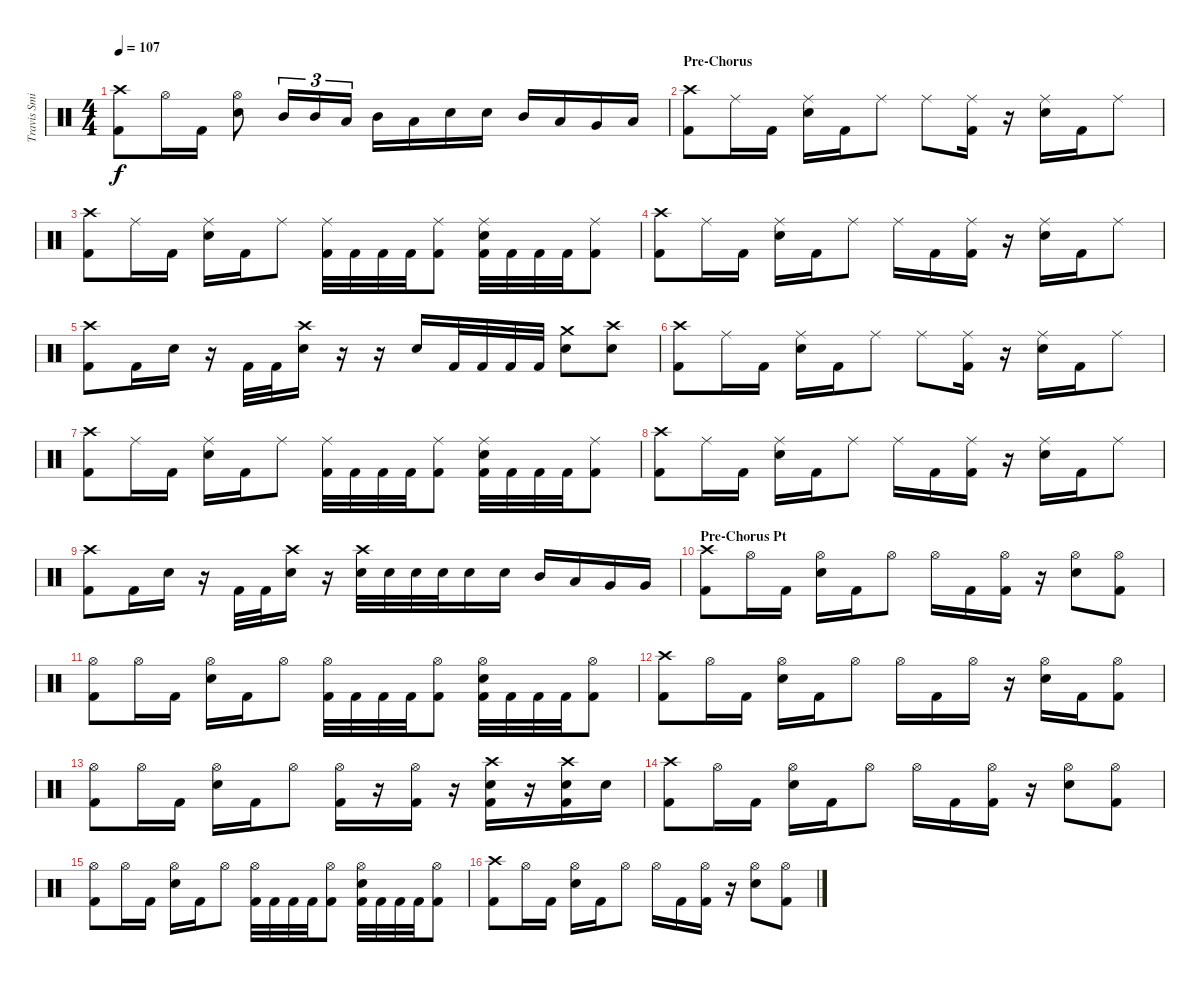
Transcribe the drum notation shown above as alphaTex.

\track ("Travis Smith" "Travis Smi") {instrument percussion}
\staff {score}
\articulation defaults
\ts (4 4)
\tempo 107
\clef neutral
\ks c
("Crash high (hit)" "Kick (hit) 2").8{dy f} "Hi-Hat (open)".16 "Kick (hit) 2".16 ("Hi-Hat (open)" "Electric Snare (hit)").8 "Mid Tom (hit)".16{tu (3 2)} "Mid Tom (hit)".16{tu (3 2)} "Low Tom (hit)".16{tu (3 2)} "Mid Tom (hit)".16 "Low Tom (hit)".16 "Electric Snare (hit)".16 "Electric Snare (hit)".16 "Mid Tom (hit)".16 "Low Tom (hit)".16 "Very Low Tom (hit)".16 "Low Floor Tom (hit)".16 |
\section ("" "Pre-Chorus")
("Crash high (hit)" "Kick (hit) 2").8 "Ride (middle)".16 "Kick (hit) 2".16 ("Ride (middle)" "Electric Snare (hit)").16 "Kick (hit) 2".16 "Ride (middle)".8 "Ride (middle)".8 ("Ride (middle)" "Kick (hit) 2").16 r.16 ("Ride (middle)" "Electric Snare (hit)").16 "Kick (hit) 2".16 "Ride (middle)".8 |
("Crash high (hit)" "Kick (hit) 2").8 "Ride (middle)".16 "Kick (hit) 2".16 ("Ride (middle)" "Electric Snare (hit)").16 "Kick (hit) 2".16 "Ride (middle)".8 ("Ride (middle)" "Kick (hit) 2").32 "Kick (hit) 2".32 "Kick (hit) 2".32 "Kick (hit) 2".32 ("Ride (middle)" "Kick (hit) 2").8 ("Ride (middle)" "Electric Snare (hit)" "Kick (hit) 2").32 "Kick (hit) 2".32 "Kick (hit) 2".32 "Kick (hit) 2".32 ("Ride (middle)" "Kick (hit) 2").8 |
("Crash high (hit)" "Kick (hit) 2").8 "Ride (middle)".16 "Kick (hit) 2".16 ("Ride (middle)" "Electric Snare (hit)").16 "Kick (hit) 2".16 "Ride (middle)".8 "Ride (middle)".16 "Kick (hit) 2".16 ("Ride (middle)" "Kick (hit) 2").16 r.16 ("Ride (middle)" "Electric Snare (hit)").16 "Kick (hit) 2".16 "Ride (middle)".8 |
("Crash high (hit)" "Kick (hit) 2").8 "Kick (hit) 2".16 "Electric Snare (hit)".16 r.16 "Kick (hit) 2".32 "Kick (hit) 2".32 ("Crash high (hit)" "Electric Snare (hit)").16 r.16 r.16 "Electric Snare (hit)".16 "Kick (hit) 2".32 "Kick (hit) 2".32 "Kick (hit) 2".32 "Kick (hit) 2".32 ("Crash medium (hit)" "Electric Snare (hit)").8 ("Crash high (hit)" "Electric Snare (hit)").8 |
("Crash high (hit)" "Kick (hit) 2").8 "Ride (middle)".16 "Kick (hit) 2".16 ("Ride (middle)" "Electric Snare (hit)").16 "Kick (hit) 2".16 "Ride (middle)".8 "Ride (middle)".8 ("Ride (middle)" "Kick (hit) 2").16 r.16 ("Ride (middle)" "Electric Snare (hit)").16 "Kick (hit) 2".16 "Ride (middle)".8 |
("Crash high (hit)" "Kick (hit) 2").8 "Ride (middle)".16 "Kick (hit) 2".16 ("Ride (middle)" "Electric Snare (hit)").16 "Kick (hit) 2".16 "Ride (middle)".8 ("Ride (middle)" "Kick (hit) 2").32 "Kick (hit) 2".32 "Kick (hit) 2".32 "Kick (hit) 2".32 ("Ride (middle)" "Kick (hit) 2").8 ("Ride (middle)" "Electric Snare (hit)" "Kick (hit) 2").32 "Kick (hit) 2".32 "Kick (hit) 2".32 "Kick (hit) 2".32 ("Ride (middle)" "Kick (hit) 2").8 |
("Crash high (hit)" "Kick (hit) 2").8 "Ride (middle)".16 "Kick (hit) 2".16 ("Ride (middle)" "Electric Snare (hit)").16 "Kick (hit) 2".16 "Ride (middle)".8 "Ride (middle)".16 "Kick (hit) 2".16 ("Ride (middle)" "Kick (hit) 2").16 r.16 ("Ride (middle)" "Electric Snare (hit)").16 "Kick (hit) 2".16 "Ride (middle)".8 |
("Crash high (hit)" "Kick (hit) 2").8 "Kick (hit) 2".16 "Electric Snare (hit)".16 r.16 "Kick (hit) 2".32 "Kick (hit) 2".32 ("Crash high (hit)" "Electric Snare (hit)").16 r.16 ("Crash high (hit)" "Electric Snare (hit)").32 "Electric Snare (hit)".32 "Electric Snare (hit)".32 "Electric Snare (hit)".32 "Electric Snare (hit)".16 "Electric Snare (hit)".16 "Mid Tom (hit)".16 "Low Tom (hit)".16 "Very Low Tom (hit)".16 "Very Low Tom (hit)".16 |
\section ("" "Pre-Chorus Pt")
("Crash high (hit)" "Kick (hit) 2").8 "Hi-Hat (open)".16 "Kick (hit) 2".16 ("Hi-Hat (open)" "Electric Snare (hit)").16 "Kick (hit) 2".16 "Hi-Hat (open)".8 "Hi-Hat (open)".16 "Kick (hit) 2".16 ("Hi-Hat (open)" "Kick (hit) 2").16 r.16 ("Hi-Hat (open)" "Electric Snare (hit)").8 ("Hi-Hat (open)" "Kick (hit) 2").8 |
("Hi-Hat (open)" "Kick (hit) 2").8 "Hi-Hat (open)".16 "Kick (hit) 2".16 ("Hi-Hat (open)" "Electric Snare (hit)").16 "Kick (hit) 2".16 "Hi-Hat (open)".8 ("Hi-Hat (open)" "Kick (hit) 2").32 "Kick (hit) 2".32 "Kick (hit) 2".32 "Kick (hit) 2".32 ("Hi-Hat (open)" "Kick (hit) 2").8 ("Hi-Hat (open)" "Electric Snare (hit)" "Kick (hit) 2").32 "Kick (hit) 2".32 "Kick (hit) 2".32 "Kick (hit) 2".32 ("Hi-Hat (open)" "Kick (hit) 2").8 |
("Crash high (hit)" "Kick (hit) 2").8 "Hi-Hat (open)".16 "Kick (hit) 2".16 ("Hi-Hat (open)" "Electric Snare (hit)").16 "Kick (hit) 2".16 "Hi-Hat (open)".8 "Hi-Hat (open)".16 "Kick (hit) 2".16 "Hi-Hat (open)".16 r.16 ("Hi-Hat (open)" "Electric Snare (hit)").16 "Kick (hit) 2".16 ("Hi-Hat (open)" "Kick (hit) 2").8 |
("Hi-Hat (open)" "Kick (hit) 2").8 "Hi-Hat (open)".16 "Kick (hit) 2".16 ("Hi-Hat (open)" "Electric Snare (hit)").16 "Kick (hit) 2".16 "Hi-Hat (open)".8 ("Hi-Hat (open)" "Kick (hit) 2").16 r.16 ("Hi-Hat (open)" "Kick (hit) 2").16 r.16 ("Crash high (hit)" "Electric Snare (hit)" "Kick (hit) 2").16 r.16 ("Crash high (hit)" "Electric Snare (hit)" "Kick (hit) 2").16 "Electric Snare (hit)".16 |
("Crash high (hit)" "Kick (hit) 2").8 "Hi-Hat (open)".16 "Kick (hit) 2".16 ("Hi-Hat (open)" "Electric Snare (hit)").16 "Kick (hit) 2".16 "Hi-Hat (open)".8 "Hi-Hat (open)".16 "Kick (hit) 2".16 ("Hi-Hat (open)" "Kick (hit) 2").16 r.16 ("Hi-Hat (open)" "Electric Snare (hit)").8 ("Hi-Hat (open)" "Kick (hit) 2").8 |
("Hi-Hat (open)" "Kick (hit) 2").8 "Hi-Hat (open)".16 "Kick (hit) 2".16 ("Hi-Hat (open)" "Electric Snare (hit)").16 "Kick (hit) 2".16 "Hi-Hat (open)".8 ("Hi-Hat (open)" "Kick (hit) 2").32 "Kick (hit) 2".32 "Kick (hit) 2".32 "Kick (hit) 2".32 ("Hi-Hat (open)" "Kick (hit) 2").8 ("Hi-Hat (open)" "Electric Snare (hit)" "Kick (hit) 2").32 "Kick (hit) 2".32 "Kick (hit) 2".32 "Kick (hit) 2".32 ("Hi-Hat (open)" "Kick (hit) 2").8 |
("Crash high (hit)" "Kick (hit) 2").8 "Hi-Hat (open)".16 "Kick (hit) 2".16 ("Hi-Hat (open)" "Electric Snare (hit)").16 "Kick (hit) 2".16 "Hi-Hat (open)".8 "Hi-Hat (open)".16 "Kick (hit) 2".16 ("Hi-Hat (open)" "Kick (hit) 2").16 r.16 ("Hi-Hat (open)" "Electric Snare (hit)").8 ("Hi-Hat (open)" "Kick (hit) 2").8
